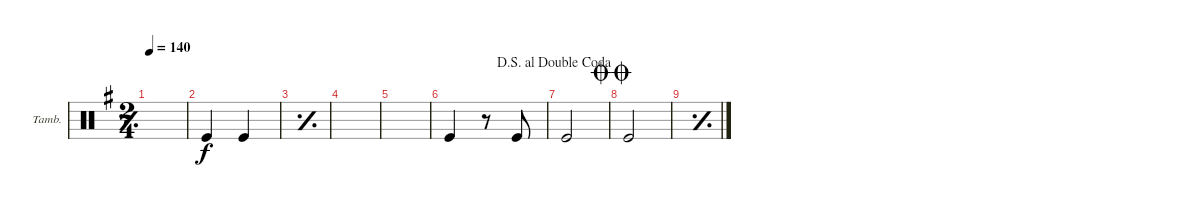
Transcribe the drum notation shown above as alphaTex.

\defaultSystemsLayout 4
\bracketExtendMode groupsimilarinstruments
\firstSystemTrackNameOrientation horizontal
\otherSystemsTrackNameOrientation horizontal
\track ("Tambourine" "Tamb.") {instrument percussion}
\staff {score}
\articulation defaults
\ts (2 4)
\tempo 140
\clef neutral
\simile simple
\ks g
|
\simile none "Kick (hit)".4 "Kick (hit)".4
|
\simile simple
|
|
|
\simile none "Kick (hit)".4
r.8 "Kick (hit)".8 |
\jump dalsegnoaldoublecoda "Kick (hit)".2
|
\jump doublecoda "Kick (hit)".2
|
\simile simple
